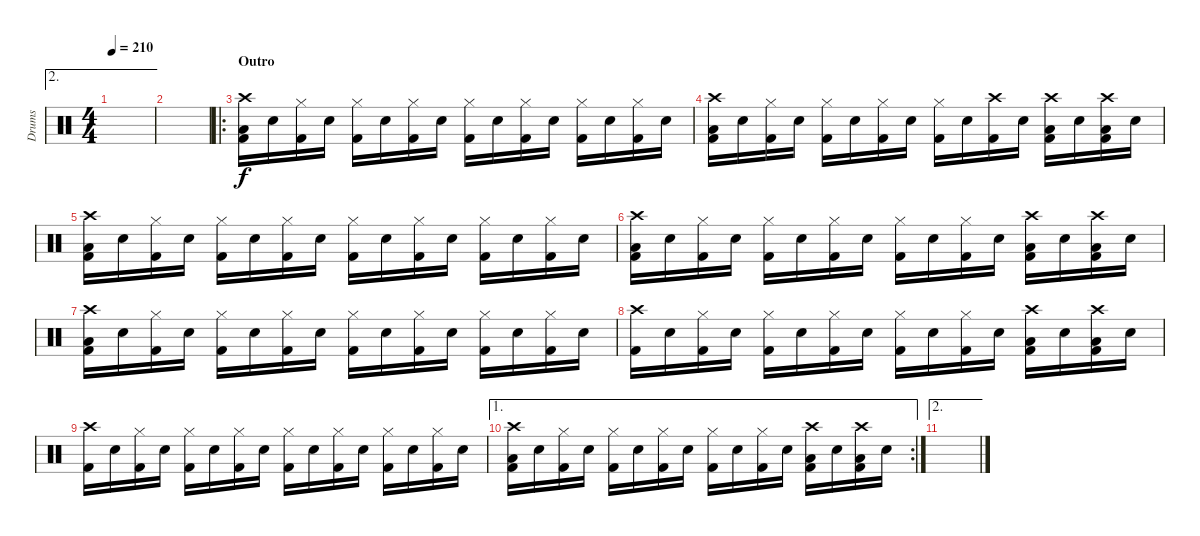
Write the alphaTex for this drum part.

\track ("Drums" "Drums") {instrument percussion}
\staff {score}
\articulation defaults
\ae 2
\ts (4 4)
\tempo 210
\clef neutral
\ks c
|
|
\ro
\section ("" "Outro")
("Crash high (hit)" "Low Floor Tom (hit)" "Kick (hit) 2").16 "Snare (hit) 2".16 ("Hi-Hat (closed)" "Kick (hit) 2").16 "Snare (hit) 2".16 ("Hi-Hat (closed)" "Kick (hit) 2").16 "Snare (hit) 2".16 ("Hi-Hat (closed)" "Kick (hit) 2").16 "Snare (hit) 2".16 ("Hi-Hat (closed)" "Kick (hit) 2").16 "Snare (hit) 2".16 ("Hi-Hat (closed)" "Kick (hit) 2").16 "Snare (hit) 2".16 ("Hi-Hat (closed)" "Kick (hit) 2").16 "Snare (hit) 2".16 ("Hi-Hat (closed)" "Kick (hit) 2").16 "Snare (hit) 2".16 |
("Crash high (hit)" "Low Floor Tom (hit)" "Kick (hit) 2").16 "Snare (hit) 2".16 ("Hi-Hat (closed)" "Kick (hit) 2").16 "Snare (hit) 2".16 ("Hi-Hat (closed)" "Kick (hit) 2").16 "Snare (hit) 2".16 ("Hi-Hat (closed)" "Kick (hit) 2").16 "Snare (hit) 2".16 ("Hi-Hat (closed)" "Kick (hit) 2").16 "Snare (hit) 2".16 ("Crash high (hit)" "Kick (hit) 2").16 "Snare (hit) 2".16 ("Crash high (hit)" "Low Floor Tom (hit)" "Kick (hit) 2").16 "Snare (hit) 2".16 ("Crash high (hit)" "Low Floor Tom (hit)" "Kick (hit) 2").16 "Snare (hit) 2".16 |
("Crash high (hit)" "Low Floor Tom (hit)" "Kick (hit) 2").16 "Snare (hit) 2".16 ("Hi-Hat (closed)" "Kick (hit) 2").16 "Snare (hit) 2".16 ("Hi-Hat (closed)" "Kick (hit) 2").16 "Snare (hit) 2".16 ("Hi-Hat (closed)" "Kick (hit) 2").16 "Snare (hit) 2".16 ("Hi-Hat (closed)" "Kick (hit) 2").16 "Snare (hit) 2".16 ("Hi-Hat (closed)" "Kick (hit) 2").16 "Snare (hit) 2".16 ("Hi-Hat (closed)" "Kick (hit) 2").16 "Snare (hit) 2".16 ("Hi-Hat (closed)" "Kick (hit) 2").16 "Snare (hit) 2".16 |
("Crash high (hit)" "Low Floor Tom (hit)" "Kick (hit) 2").16 "Snare (hit) 2".16 ("Hi-Hat (closed)" "Kick (hit) 2").16 "Snare (hit) 2".16 ("Hi-Hat (closed)" "Kick (hit) 2").16 "Snare (hit) 2".16 ("Hi-Hat (closed)" "Kick (hit) 2").16 "Snare (hit) 2".16 ("Hi-Hat (closed)" "Kick (hit) 2").16 "Snare (hit) 2".16 ("Hi-Hat (closed)" "Kick (hit) 2").16 "Snare (hit) 2".16 ("Crash high (hit)" "Low Floor Tom (hit)" "Kick (hit) 2").16 "Snare (hit) 2".16 ("Crash high (hit)" "Low Floor Tom (hit)" "Kick (hit) 2").16 "Snare (hit) 2".16 |
("Crash high (hit)" "Low Floor Tom (hit)" "Kick (hit) 2").16 "Snare (hit) 2".16 ("Hi-Hat (closed)" "Kick (hit) 2").16 "Snare (hit) 2".16 ("Hi-Hat (closed)" "Kick (hit) 2").16 "Snare (hit) 2".16 ("Hi-Hat (closed)" "Kick (hit) 2").16 "Snare (hit) 2".16 ("Hi-Hat (closed)" "Kick (hit) 2").16 "Snare (hit) 2".16 ("Hi-Hat (closed)" "Kick (hit) 2").16 "Snare (hit) 2".16 ("Hi-Hat (closed)" "Kick (hit) 2").16 "Snare (hit) 2".16 ("Hi-Hat (closed)" "Kick (hit) 2").16 "Snare (hit) 2".16 |
("Crash high (hit)" "Kick (hit) 2").16 "Snare (hit) 2".16 ("Hi-Hat (closed)" "Kick (hit) 2").16 "Snare (hit) 2".16 ("Hi-Hat (closed)" "Kick (hit) 2").16 "Snare (hit) 2".16 ("Hi-Hat (closed)" "Kick (hit) 2").16 "Snare (hit) 2".16 ("Hi-Hat (closed)" "Kick (hit) 2").16 "Snare (hit) 2".16 ("Hi-Hat (closed)" "Kick (hit) 2").16 "Snare (hit) 2".16 ("Crash high (hit)" "Low Floor Tom (hit)" "Kick (hit) 2").16 "Snare (hit) 2".16 ("Crash high (hit)" "Low Floor Tom (hit)" "Kick (hit) 2").16 "Snare (hit) 2".16 |
("Crash high (hit)" "Kick (hit) 2").16 "Snare (hit) 2".16 ("Hi-Hat (closed)" "Kick (hit) 2").16 "Snare (hit) 2".16 ("Hi-Hat (closed)" "Kick (hit) 2").16 "Snare (hit) 2".16 ("Hi-Hat (closed)" "Kick (hit) 2").16 "Snare (hit) 2".16 ("Hi-Hat (closed)" "Kick (hit) 2").16 "Snare (hit) 2".16 ("Hi-Hat (closed)" "Kick (hit) 2").16 "Snare (hit) 2".16 ("Hi-Hat (closed)" "Kick (hit) 2").16 "Snare (hit) 2".16 ("Hi-Hat (closed)" "Kick (hit) 2").16 "Snare (hit) 2".16 |
\ae 1
\rc 2
("Crash high (hit)" "Low Floor Tom (hit)" "Kick (hit) 2").16 "Snare (hit) 2".16 ("Hi-Hat (closed)" "Kick (hit) 2").16 "Snare (hit) 2".16 ("Hi-Hat (closed)" "Kick (hit) 2").16 "Snare (hit) 2".16 ("Hi-Hat (closed)" "Kick (hit) 2").16 "Snare (hit) 2".16 ("Hi-Hat (closed)" "Kick (hit) 2").16 "Snare (hit) 2".16 ("Hi-Hat (closed)" "Kick (hit) 2").16 "Snare (hit) 2".16 ("Crash high (hit)" "Low Floor Tom (hit)" "Kick (hit) 2").16 "Snare (hit) 2".16 ("Crash high (hit)" "Low Floor Tom (hit)" "Kick (hit) 2").16 "Snare (hit) 2".16 |
\ae 2
